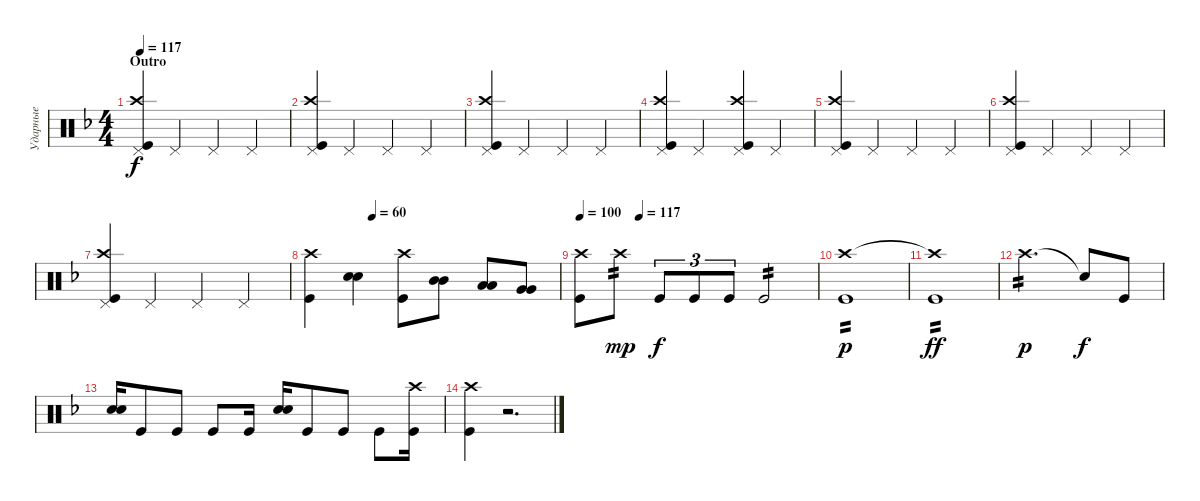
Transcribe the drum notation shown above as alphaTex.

\track ("Ударные" "Ударные") {instrument percussion}
\staff {score}
\articulation defaults
\ts (4 4)
\section ("" "Outro")
\tempo 117
\clef neutral
\ks dminor
("Kick (hit)" "Crash high (hit)" "Pedal Hi-Hat (hit)").4{dy f} "Pedal Hi-Hat (hit)".4 "Pedal Hi-Hat (hit)".4 "Pedal Hi-Hat (hit)".4 |
("Kick (hit)" "Crash high (hit)" "Pedal Hi-Hat (hit)").4 "Pedal Hi-Hat (hit)".4 "Pedal Hi-Hat (hit)".4 "Pedal Hi-Hat (hit)".4 |
("Kick (hit)" "Crash high (hit)" "Pedal Hi-Hat (hit)").4 "Pedal Hi-Hat (hit)".4 "Pedal Hi-Hat (hit)".4 "Pedal Hi-Hat (hit)".4 |
("Kick (hit)" "Crash high (hit)" "Pedal Hi-Hat (hit)").4 "Pedal Hi-Hat (hit)".4 ("Pedal Hi-Hat (hit)" "Crash high (hit)" "Kick (hit)").4 "Pedal Hi-Hat (hit)".4 |
("Kick (hit)" "Crash high (hit)" "Pedal Hi-Hat (hit)").4 "Pedal Hi-Hat (hit)".4 "Pedal Hi-Hat (hit)".4 "Pedal Hi-Hat (hit)".4 |
("Kick (hit)" "Crash high (hit)" "Pedal Hi-Hat (hit)").4 "Pedal Hi-Hat (hit)".4 "Pedal Hi-Hat (hit)".4 "Pedal Hi-Hat (hit)".4 |
("Kick (hit)" "Crash high (hit)" "Pedal Hi-Hat (hit)").4 "Pedal Hi-Hat (hit)".4 "Pedal Hi-Hat (hit)".4 "Pedal Hi-Hat (hit)".4 |
\tempo (60 0.25)
("Kick (hit)" "Crash high (hit)").4 ("Snare (hit) 2" "Snare (hit) 2").4 ("Kick (hit)" "Crash high (hit)").8 ("Mid Tom (hit)" "Mid Tom (hit)").8 ("Low Tom (hit)" "Low Tom (hit)").8 ("Very Low Tom (hit)" "Very Low Tom (hit)").8 |
\tempo 100
\tempo (117 0.25)
("Kick (hit)" "Crash high (hit)").8 "Crash high (hit)".8{tp 2 dy mp} "Kick (hit)".8{tu (3 2) dy f} "Kick (hit)".8{tu (3 2)} "Kick (hit)".8{tu (3 2)} "Kick (hit)".2{tp 2} |
("Kick (hit)" "Crash high (hit)").1{tp 2 dy p} |
("Kick (hit)" "Crash high (hit)"{t}).1{tp 2 dy ff} |
"Crash high (hit)".2{d tp 2 dy p} "Snare (hit)"{t}.8{dy f} "Kick (hit)".8 |
("Snare (hit) 2" "Snare (hit) 2").16{bd 480} "Kick (hit)".8 "Kick (hit)".8 "Kick (hit)".8 "Kick (hit)".16 ("Snare (hit) 2" "Snare (hit) 2").16{bd 480} "Kick (hit)".8 "Kick (hit)".8 "Kick (hit)".8 ("Kick (hit)" "Crash high (hit)").16 |
("Kick (hit)" "Crash high (hit)").4 r.2{d}
